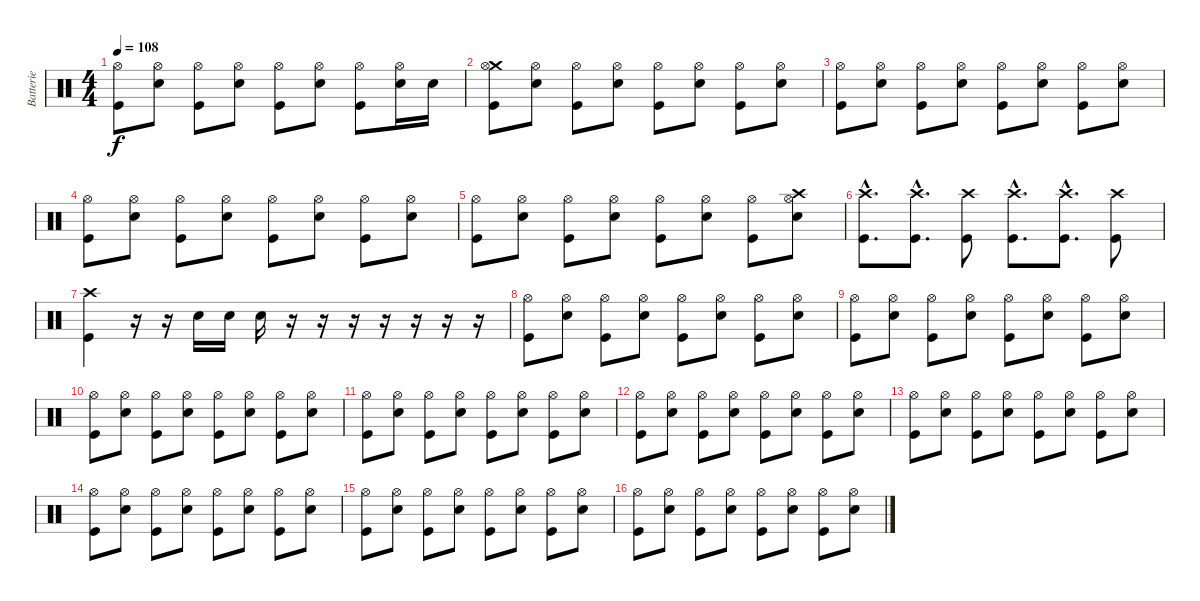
\track ("Batterie" "Batterie") {instrument percussion}
\staff {score}
\articulation defaults
\ts (4 4)
\tempo 108
\clef neutral
\ks c
("Hi-Hat (open)" "Kick (hit)").8{dy f} ("Hi-Hat (open)" "Snare (hit) 2").8 ("Hi-Hat (open)" "Kick (hit)").8 ("Hi-Hat (open)" "Snare (hit) 2").8 ("Hi-Hat (open)" "Kick (hit)").8 ("Hi-Hat (open)" "Snare (hit) 2").8 ("Hi-Hat (open)" "Kick (hit)").8 ("Hi-Hat (open)" "Snare (hit) 2").16 "Snare (hit) 2".16 |
("Crash medium (hit)" "Hi-Hat (open)" "Kick (hit)").8 ("Hi-Hat (open)" "Snare (hit) 2").8 ("Hi-Hat (open)" "Kick (hit)").8 ("Hi-Hat (open)" "Snare (hit) 2").8 ("Hi-Hat (open)" "Kick (hit)").8 ("Hi-Hat (open)" "Snare (hit) 2").8 ("Hi-Hat (open)" "Kick (hit)").8 ("Hi-Hat (open)" "Snare (hit) 2").8 |
("Hi-Hat (open)" "Kick (hit)").8 ("Hi-Hat (open)" "Snare (hit) 2").8 ("Hi-Hat (open)" "Kick (hit)").8 ("Hi-Hat (open)" "Snare (hit) 2").8 ("Hi-Hat (open)" "Kick (hit)").8 ("Hi-Hat (open)" "Snare (hit) 2").8 ("Hi-Hat (open)" "Kick (hit)").8 ("Hi-Hat (open)" "Snare (hit) 2").8 |
("Hi-Hat (open)" "Kick (hit)").8 ("Hi-Hat (open)" "Snare (hit) 2").8 ("Hi-Hat (open)" "Kick (hit)").8 ("Hi-Hat (open)" "Snare (hit) 2").8 ("Hi-Hat (open)" "Kick (hit)").8 ("Hi-Hat (open)" "Snare (hit) 2").8 ("Hi-Hat (open)" "Kick (hit)").8 ("Hi-Hat (open)" "Snare (hit) 2").8 |
("Hi-Hat (open)" "Kick (hit)").8 ("Hi-Hat (open)" "Snare (hit) 2").8 ("Hi-Hat (open)" "Kick (hit)").8 ("Hi-Hat (open)" "Snare (hit) 2").8 ("Hi-Hat (open)" "Kick (hit)").8 ("Hi-Hat (open)" "Snare (hit) 2").8 ("Hi-Hat (open)" "Kick (hit)").8 ("Crash high (hit)" "Hi-Hat (open)" "Snare (hit) 2").8 |
("Crash high (hit)"{hac} "Kick (hit)"{hac}).8{d} ("Crash high (hit)"{hac} "Kick (hit)"{hac}).8{d} ("Crash high (hit)" "Kick (hit)").8 ("Crash high (hit)"{hac} "Kick (hit)"{hac}).8{d} ("Crash high (hit)"{hac} "Kick (hit)"{hac}).8{d} ("Crash high (hit)" "Kick (hit)").8 |
("Crash high (hit)" "Kick (hit)").4 r.16 r.16 "Snare (hit) 2".16{volume 8} "Snare (hit) 2".16{volume 8} "Snare (hit) 2".16{volume 9} r.16 r.16 r.16 r.16 r.16 r.16 r.16 |
("Hi-Hat (open)" "Kick (hit)").8 ("Hi-Hat (open)" "Snare (hit) 2").8 ("Hi-Hat (open)" "Kick (hit)").8 ("Hi-Hat (open)" "Snare (hit) 2").8 ("Hi-Hat (open)" "Kick (hit)").8 ("Hi-Hat (open)" "Snare (hit) 2").8 ("Hi-Hat (open)" "Kick (hit)").8 ("Hi-Hat (open)" "Snare (hit) 2").8 |
("Hi-Hat (open)" "Kick (hit)").8 ("Hi-Hat (open)" "Snare (hit) 2").8 ("Hi-Hat (open)" "Kick (hit)").8 ("Hi-Hat (open)" "Snare (hit) 2").8 ("Hi-Hat (open)" "Kick (hit)").8 ("Hi-Hat (open)" "Snare (hit) 2").8 ("Hi-Hat (open)" "Kick (hit)").8 ("Hi-Hat (open)" "Snare (hit) 2").8 |
("Hi-Hat (open)" "Kick (hit)").8 ("Hi-Hat (open)" "Snare (hit) 2").8 ("Hi-Hat (open)" "Kick (hit)").8 ("Hi-Hat (open)" "Snare (hit) 2").8 ("Hi-Hat (open)" "Kick (hit)").8 ("Hi-Hat (open)" "Snare (hit) 2").8 ("Hi-Hat (open)" "Kick (hit)").8 ("Hi-Hat (open)" "Snare (hit) 2").8 |
("Hi-Hat (open)" "Kick (hit)").8 ("Hi-Hat (open)" "Snare (hit) 2").8 ("Hi-Hat (open)" "Kick (hit)").8 ("Hi-Hat (open)" "Snare (hit) 2").8 ("Hi-Hat (open)" "Kick (hit)").8 ("Hi-Hat (open)" "Snare (hit) 2").8 ("Hi-Hat (open)" "Kick (hit)").8 ("Hi-Hat (open)" "Snare (hit) 2").8 |
("Hi-Hat (open)" "Kick (hit)").8 ("Hi-Hat (open)" "Snare (hit) 2").8 ("Hi-Hat (open)" "Kick (hit)").8 ("Hi-Hat (open)" "Snare (hit) 2").8 ("Hi-Hat (open)" "Kick (hit)").8 ("Hi-Hat (open)" "Snare (hit) 2").8 ("Hi-Hat (open)" "Kick (hit)").8 ("Hi-Hat (open)" "Snare (hit) 2").8 |
("Hi-Hat (open)" "Kick (hit)").8 ("Hi-Hat (open)" "Snare (hit) 2").8 ("Hi-Hat (open)" "Kick (hit)").8 ("Hi-Hat (open)" "Snare (hit) 2").8 ("Hi-Hat (open)" "Kick (hit)").8 ("Hi-Hat (open)" "Snare (hit) 2").8 ("Hi-Hat (open)" "Kick (hit)").8 ("Hi-Hat (open)" "Snare (hit) 2").8 |
("Hi-Hat (open)" "Kick (hit)").8 ("Hi-Hat (open)" "Snare (hit) 2").8 ("Hi-Hat (open)" "Kick (hit)").8 ("Hi-Hat (open)" "Snare (hit) 2").8 ("Hi-Hat (open)" "Kick (hit)").8 ("Hi-Hat (open)" "Snare (hit) 2").8 ("Hi-Hat (open)" "Kick (hit)").8 ("Hi-Hat (open)" "Snare (hit) 2").8 |
("Hi-Hat (open)" "Kick (hit)").8 ("Hi-Hat (open)" "Snare (hit) 2").8 ("Hi-Hat (open)" "Kick (hit)").8 ("Hi-Hat (open)" "Snare (hit) 2").8 ("Hi-Hat (open)" "Kick (hit)").8 ("Hi-Hat (open)" "Snare (hit) 2").8 ("Hi-Hat (open)" "Kick (hit)").8 ("Hi-Hat (open)" "Snare (hit) 2").8 |
("Hi-Hat (open)" "Kick (hit)").8 ("Hi-Hat (open)" "Snare (hit) 2").8 ("Hi-Hat (open)" "Kick (hit)").8 ("Hi-Hat (open)" "Snare (hit) 2").8 ("Hi-Hat (open)" "Kick (hit)").8 ("Hi-Hat (open)" "Snare (hit) 2").8 ("Hi-Hat (open)" "Kick (hit)").8 ("Hi-Hat (open)" "Snare (hit) 2").8
